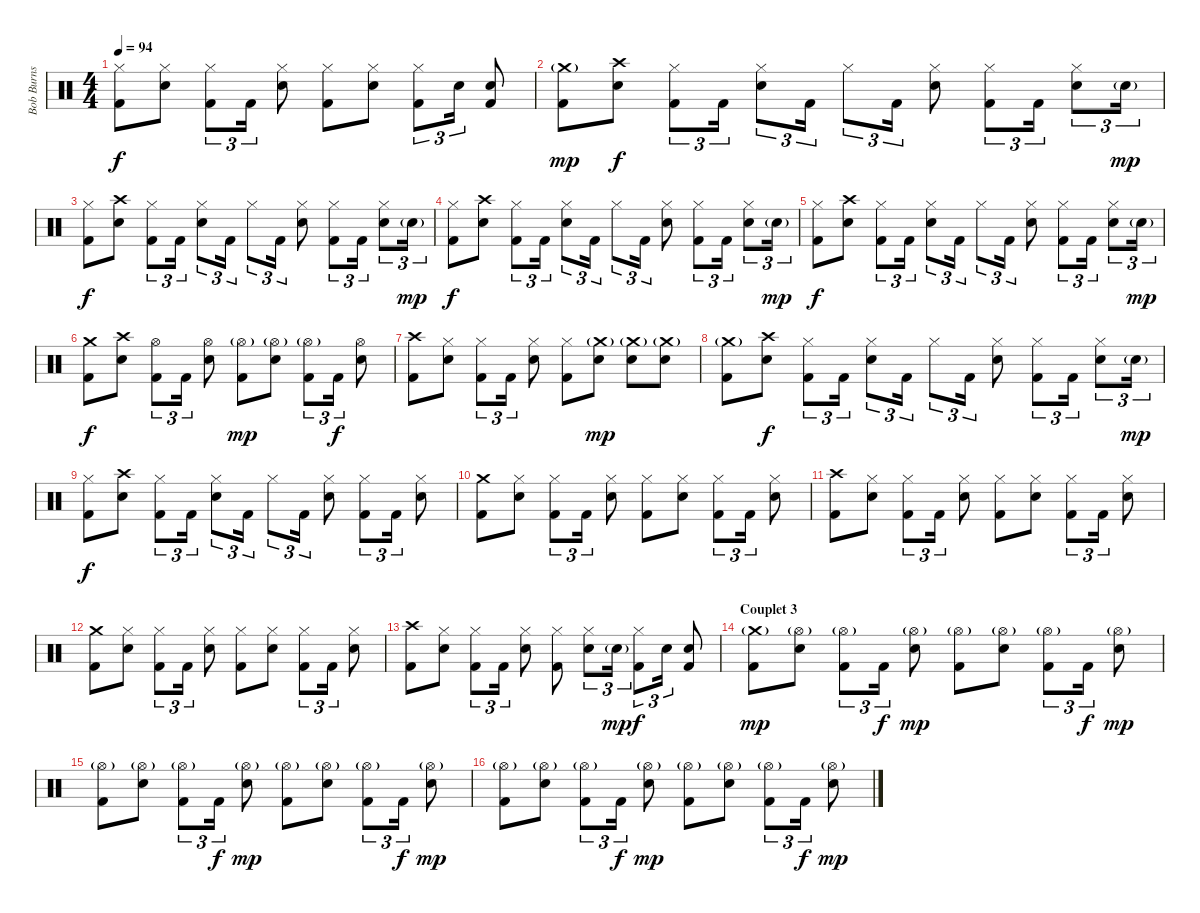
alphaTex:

\track ("Bob Burns (drums)" "Bob Burns ") {instrument percussion}
\staff {score}
\articulation defaults
\ts (4 4)
\tempo 94
\clef neutral
\ks c
("Hi-Hat (closed)" "Kick (hit) 2").8{dy f} ("Hi-Hat (closed)" "Electric Snare (hit)").8 ("Hi-Hat (closed)" "Kick (hit) 2").8{tu (3 2)} "Kick (hit) 2".16{tu (3 2)} ("Hi-Hat (closed)" "Electric Snare (hit)").8 ("Hi-Hat (closed)" "Kick (hit) 2").8 ("Hi-Hat (closed)" "Electric Snare (hit)").8 ("Hi-Hat (closed)" "Kick (hit) 2").8{tu (3 2)} "Electric Snare (hit)".16{tu (3 2)} ("Electric Snare (hit)" "Kick (hit) 2").8 |
("Crash medium (hit)"{g} "Kick (hit) 2").8{dy mp} ("Crash high (hit)" "Electric Snare (hit)").8{dy f} ("Hi-Hat (closed)" "Kick (hit) 2").8{tu (3 2)} "Kick (hit) 2".16{tu (3 2)} ("Hi-Hat (closed)" "Electric Snare (hit)").8{tu (3 2)} "Kick (hit) 2".16{tu (3 2)} "Hi-Hat (closed)".8{tu (3 2)} "Kick (hit) 2".16{tu (3 2)} ("Hi-Hat (closed)" "Electric Snare (hit)").8 ("Hi-Hat (closed)" "Kick (hit) 2").8{tu (3 2)} "Kick (hit) 2".16{tu (3 2)} ("Hi-Hat (closed)" "Electric Snare (hit)").8{tu (3 2)} "Electric Snare (hit)"{g}.16{tu (3 2) dy mp} |
("Hi-Hat (closed)" "Kick (hit) 2").8{dy f} ("Crash high (hit)" "Electric Snare (hit)").8 ("Hi-Hat (closed)" "Kick (hit) 2").8{tu (3 2)} "Kick (hit) 2".16{tu (3 2)} ("Hi-Hat (closed)" "Electric Snare (hit)").8{tu (3 2)} "Kick (hit) 2".16{tu (3 2)} "Hi-Hat (closed)".8{tu (3 2)} "Kick (hit) 2".16{tu (3 2)} ("Hi-Hat (closed)" "Electric Snare (hit)").8 ("Hi-Hat (closed)" "Kick (hit) 2").8{tu (3 2)} "Kick (hit) 2".16{tu (3 2)} ("Hi-Hat (closed)" "Electric Snare (hit)").8{tu (3 2)} "Electric Snare (hit)"{g}.16{tu (3 2) dy mp} |
("Hi-Hat (closed)" "Kick (hit) 2").8{dy f} ("Crash high (hit)" "Electric Snare (hit)").8 ("Hi-Hat (closed)" "Kick (hit) 2").8{tu (3 2)} "Kick (hit) 2".16{tu (3 2)} ("Hi-Hat (closed)" "Electric Snare (hit)").8{tu (3 2)} "Kick (hit) 2".16{tu (3 2)} "Hi-Hat (closed)".8{tu (3 2)} "Kick (hit) 2".16{tu (3 2)} ("Hi-Hat (closed)" "Electric Snare (hit)").8 ("Hi-Hat (closed)" "Kick (hit) 2").8{tu (3 2)} "Kick (hit) 2".16{tu (3 2)} ("Hi-Hat (closed)" "Electric Snare (hit)").8{tu (3 2)} "Electric Snare (hit)"{g}.16{tu (3 2) dy mp} |
("Hi-Hat (closed)" "Kick (hit) 2").8{dy f} ("Crash high (hit)" "Electric Snare (hit)").8 ("Hi-Hat (closed)" "Kick (hit) 2").8{tu (3 2)} "Kick (hit) 2".16{tu (3 2)} ("Hi-Hat (closed)" "Electric Snare (hit)").8{tu (3 2)} "Kick (hit) 2".16{tu (3 2)} "Hi-Hat (closed)".8{tu (3 2)} "Kick (hit) 2".16{tu (3 2)} ("Hi-Hat (closed)" "Electric Snare (hit)").8 ("Hi-Hat (closed)" "Kick (hit) 2").8{tu (3 2)} "Kick (hit) 2".16{tu (3 2)} ("Hi-Hat (closed)" "Electric Snare (hit)").8{tu (3 2)} "Electric Snare (hit)"{g}.16{tu (3 2) dy mp} |
("Crash medium (hit)" "Kick (hit) 2").8{dy f} ("Crash high (hit)" "Electric Snare (hit)").8 ("Hi-Hat (open)" "Kick (hit) 2").8{tu (3 2)} "Kick (hit) 2".16{tu (3 2)} ("Hi-Hat (open)" "Electric Snare (hit)").8 ("Hi-Hat (open)"{g} "Kick (hit) 2").8{dy mp} ("Hi-Hat (open)"{g} "Electric Snare (hit)").8 ("Hi-Hat (open)"{g} "Kick (hit) 2").8{tu (3 2)} "Kick (hit) 2".16{tu (3 2) dy f} ("Hi-Hat (open)" "Electric Snare (hit)").8 |
("Crash high (hit)" "Kick (hit) 2").8 ("Hi-Hat (closed)" "Electric Snare (hit)").8 ("Hi-Hat (closed)" "Kick (hit) 2").8{tu (3 2)} "Kick (hit) 2".16{tu (3 2)} ("Hi-Hat (closed)" "Electric Snare (hit)").8 ("Hi-Hat (closed)" "Kick (hit) 2").8 ("Crash medium (hit)"{g} "Electric Snare (hit)").8{dy mp} ("Crash medium (hit)"{g} "Electric Snare (hit)").8 ("Crash medium (hit)"{g} "Electric Snare (hit)").8 |
("Crash medium (hit)"{g} "Kick (hit) 2").8 ("Crash high (hit)" "Electric Snare (hit)").8{dy f} ("Hi-Hat (closed)" "Kick (hit) 2").8{tu (3 2)} "Kick (hit) 2".16{tu (3 2)} ("Hi-Hat (closed)" "Electric Snare (hit)").8{tu (3 2)} "Kick (hit) 2".16{tu (3 2)} "Hi-Hat (closed)".8{tu (3 2)} "Kick (hit) 2".16{tu (3 2)} ("Hi-Hat (closed)" "Electric Snare (hit)").8 ("Hi-Hat (closed)" "Kick (hit) 2").8{tu (3 2)} "Kick (hit) 2".16{tu (3 2)} ("Hi-Hat (closed)" "Electric Snare (hit)").8{tu (3 2)} "Electric Snare (hit)"{g}.16{tu (3 2) dy mp} |
("Hi-Hat (closed)" "Kick (hit) 2").8{dy f} ("Crash high (hit)" "Electric Snare (hit)").8 ("Hi-Hat (closed)" "Kick (hit) 2").8{tu (3 2)} "Kick (hit) 2".16{tu (3 2)} ("Hi-Hat (closed)" "Electric Snare (hit)").8{tu (3 2)} "Kick (hit) 2".16{tu (3 2)} "Hi-Hat (closed)".8{tu (3 2)} "Kick (hit) 2".16{tu (3 2)} ("Hi-Hat (closed)" "Electric Snare (hit)").8 ("Hi-Hat (closed)" "Kick (hit) 2").8{tu (3 2)} "Kick (hit) 2".16{tu (3 2)} ("Hi-Hat (closed)" "Electric Snare (hit)").8 |
("Crash medium (hit)" "Kick (hit) 2").8 ("Hi-Hat (closed)" "Electric Snare (hit)").8 ("Hi-Hat (closed)" "Kick (hit) 2").8{tu (3 2)} "Kick (hit) 2".16{tu (3 2)} ("Hi-Hat (closed)" "Electric Snare (hit)").8 ("Hi-Hat (closed)" "Kick (hit) 2").8 ("Hi-Hat (closed)" "Electric Snare (hit)").8 ("Hi-Hat (closed)" "Kick (hit) 2").8{tu (3 2)} "Kick (hit) 2".16{tu (3 2)} ("Hi-Hat (closed)" "Electric Snare (hit)").8 |
("Crash high (hit)" "Kick (hit) 2").8 ("Hi-Hat (closed)" "Electric Snare (hit)").8 ("Hi-Hat (closed)" "Kick (hit) 2").8{tu (3 2)} "Kick (hit) 2".16{tu (3 2)} ("Hi-Hat (closed)" "Electric Snare (hit)").8 ("Hi-Hat (closed)" "Kick (hit) 2").8 ("Hi-Hat (closed)" "Electric Snare (hit)").8 ("Hi-Hat (closed)" "Kick (hit) 2").8{tu (3 2)} "Kick (hit) 2".16{tu (3 2)} ("Hi-Hat (closed)" "Electric Snare (hit)").8 |
("Crash medium (hit)" "Kick (hit) 2").8 ("Hi-Hat (closed)" "Electric Snare (hit)").8 ("Hi-Hat (closed)" "Kick (hit) 2").8{tu (3 2)} "Kick (hit) 2".16{tu (3 2)} ("Hi-Hat (closed)" "Electric Snare (hit)").8 ("Hi-Hat (closed)" "Kick (hit) 2").8 ("Hi-Hat (closed)" "Electric Snare (hit)").8 ("Hi-Hat (closed)" "Kick (hit) 2").8{tu (3 2)} "Kick (hit) 2".16{tu (3 2)} ("Hi-Hat (closed)" "Electric Snare (hit)").8 |
("Crash high (hit)" "Kick (hit) 2").8 ("Hi-Hat (closed)" "Electric Snare (hit)").8 ("Hi-Hat (closed)" "Kick (hit) 2").8{tu (3 2)} "Kick (hit) 2".16{tu (3 2)} ("Hi-Hat (closed)" "Electric Snare (hit)").8 ("Hi-Hat (closed)" "Kick (hit) 2").8 ("Hi-Hat (closed)" "Electric Snare (hit)").8{tu (3 2)} "Electric Snare (hit)"{g}.16{tu (3 2) dy mp} ("Hi-Hat (closed)" "Kick (hit) 2").8{tu (3 2) dy f} "Electric Snare (hit)".16{tu (3 2)} ("Electric Snare (hit)" "Kick (hit) 2").8 |
\section ("" "Couplet 3")
("Crash medium (hit)"{g} "Kick (hit) 2").8{dy mp} ("Hi-Hat (open)"{g} "Electric Snare (hit)").8 ("Hi-Hat (open)"{g} "Kick (hit) 2").8{tu (3 2)} "Kick (hit) 2".16{tu (3 2) dy f} ("Hi-Hat (open)"{g} "Electric Snare (hit)").8{dy mp} ("Hi-Hat (open)"{g} "Kick (hit) 2").8 ("Hi-Hat (open)"{g} "Electric Snare (hit)").8 ("Hi-Hat (open)"{g} "Kick (hit) 2").8{tu (3 2)} "Kick (hit) 2".16{tu (3 2) dy f} ("Hi-Hat (open)"{g} "Electric Snare (hit)").8{dy mp} |
("Hi-Hat (open)"{g} "Kick (hit) 2").8 ("Hi-Hat (open)"{g} "Electric Snare (hit)").8 ("Hi-Hat (open)"{g} "Kick (hit) 2").8{tu (3 2)} "Kick (hit) 2".16{tu (3 2) dy f} ("Hi-Hat (open)"{g} "Electric Snare (hit)").8{dy mp} ("Hi-Hat (open)"{g} "Kick (hit) 2").8 ("Hi-Hat (open)"{g} "Electric Snare (hit)").8 ("Hi-Hat (open)"{g} "Kick (hit) 2").8{tu (3 2)} "Kick (hit) 2".16{tu (3 2) dy f} ("Hi-Hat (open)"{g} "Electric Snare (hit)").8{dy mp} |
("Hi-Hat (open)"{g} "Kick (hit) 2").8 ("Hi-Hat (open)"{g} "Electric Snare (hit)").8 ("Hi-Hat (open)"{g} "Kick (hit) 2").8{tu (3 2)} "Kick (hit) 2".16{tu (3 2) dy f} ("Hi-Hat (open)"{g} "Electric Snare (hit)").8{dy mp} ("Hi-Hat (open)"{g} "Kick (hit) 2").8 ("Hi-Hat (open)"{g} "Electric Snare (hit)").8 ("Hi-Hat (open)"{g} "Kick (hit) 2").8{tu (3 2)} "Kick (hit) 2".16{tu (3 2) dy f} ("Hi-Hat (open)"{g} "Electric Snare (hit)").8{dy mp}
